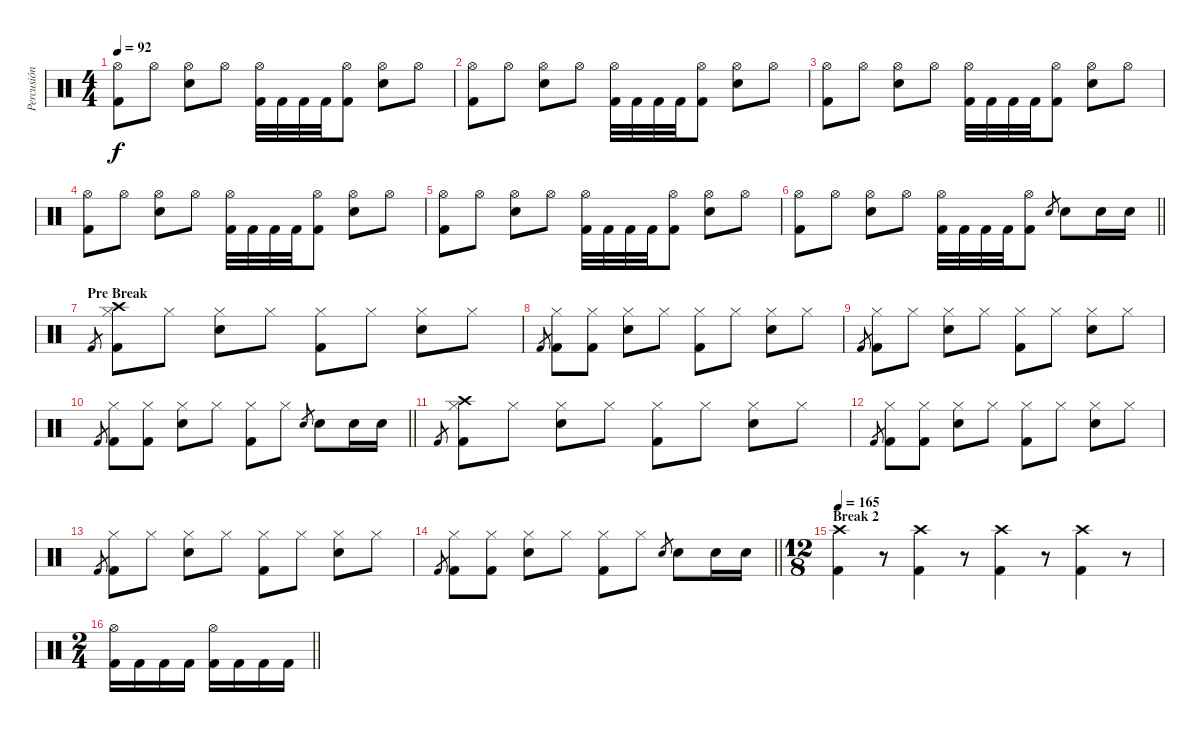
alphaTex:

\track ("Percusión" "Percusión") {instrument percussion}
\staff {score}
\articulation defaults
\ts (4 4)
\tempo 92
\clef neutral
\ks c
("Hi-Hat (open)" "Kick (hit) 2").8{dy f} "Hi-Hat (open)".8 ("Hi-Hat (open)" "Snare (hit) 2").8 "Hi-Hat (open)".8 ("Hi-Hat (open)" "Kick (hit) 2").32 "Kick (hit) 2".32 "Kick (hit) 2".32 "Kick (hit) 2".32 ("Hi-Hat (open)" "Kick (hit) 2").8 ("Hi-Hat (open)" "Snare (hit) 2").8 "Hi-Hat (open)".8 |
("Hi-Hat (open)" "Kick (hit) 2").8 "Hi-Hat (open)".8 ("Hi-Hat (open)" "Snare (hit) 2").8 "Hi-Hat (open)".8 ("Hi-Hat (open)" "Kick (hit) 2").32 "Kick (hit) 2".32 "Kick (hit) 2".32 "Kick (hit) 2".32 ("Hi-Hat (open)" "Kick (hit) 2").8 ("Hi-Hat (open)" "Snare (hit) 2").8 "Hi-Hat (open)".8 |
("Hi-Hat (open)" "Kick (hit) 2").8 "Hi-Hat (open)".8 ("Hi-Hat (open)" "Snare (hit) 2").8 "Hi-Hat (open)".8 ("Hi-Hat (open)" "Kick (hit) 2").32 "Kick (hit) 2".32 "Kick (hit) 2".32 "Kick (hit) 2".32 ("Hi-Hat (open)" "Kick (hit) 2").8 ("Hi-Hat (open)" "Snare (hit) 2").8 "Hi-Hat (open)".8 |
("Hi-Hat (open)" "Kick (hit) 2").8 "Hi-Hat (open)".8 ("Hi-Hat (open)" "Snare (hit) 2").8 "Hi-Hat (open)".8 ("Hi-Hat (open)" "Kick (hit) 2").32 "Kick (hit) 2".32 "Kick (hit) 2".32 "Kick (hit) 2".32 ("Hi-Hat (open)" "Kick (hit) 2").8 ("Hi-Hat (open)" "Snare (hit) 2").8 "Hi-Hat (open)".8 |
("Hi-Hat (open)" "Kick (hit) 2").8 "Hi-Hat (open)".8 ("Hi-Hat (open)" "Snare (hit) 2").8 "Hi-Hat (open)".8 ("Hi-Hat (open)" "Kick (hit) 2").32 "Kick (hit) 2".32 "Kick (hit) 2".32 "Kick (hit) 2".32 ("Hi-Hat (open)" "Kick (hit) 2").8 ("Hi-Hat (open)" "Snare (hit) 2").8 "Hi-Hat (open)".8 |
\barLineRight lightlight
("Hi-Hat (open)" "Kick (hit) 2").8 "Hi-Hat (open)".8 ("Hi-Hat (open)" "Snare (hit) 2").8 "Hi-Hat (open)".8 ("Hi-Hat (open)" "Kick (hit) 2").32 "Kick (hit) 2".32 "Kick (hit) 2".32 "Kick (hit) 2".32 ("Hi-Hat (open)" "Kick (hit) 2").8 "Snare (hit) 2".8{gr} "Snare (hit) 2".8 "Snare (hit) 2".16 "Snare (hit) 2".16 |
\section ("" "Pre Break")
"Kick (hit) 2".8{gr} ("Hi-Hat (closed)" "Crash high (hit)" "Kick (hit) 2").8 "Hi-Hat (closed)".8 ("Hi-Hat (closed)" "Snare (hit) 2").8 "Hi-Hat (closed)".8 ("Hi-Hat (closed)" "Kick (hit) 2").8 "Hi-Hat (closed)".8 ("Hi-Hat (closed)" "Snare (hit) 2").8 "Hi-Hat (closed)".8 |
"Kick (hit) 2".8{gr} ("Hi-Hat (closed)" "Kick (hit) 2").8 ("Hi-Hat (closed)" "Kick (hit) 2").8 ("Hi-Hat (closed)" "Snare (hit) 2").8 "Hi-Hat (closed)".8 ("Hi-Hat (closed)" "Kick (hit) 2").8 "Hi-Hat (closed)".8 ("Hi-Hat (closed)" "Snare (hit) 2").8 "Hi-Hat (closed)".8 |
"Kick (hit) 2".8{gr} ("Hi-Hat (closed)" "Kick (hit) 2").8 "Hi-Hat (closed)".8 ("Hi-Hat (closed)" "Snare (hit) 2").8 "Hi-Hat (closed)".8 ("Hi-Hat (closed)" "Kick (hit) 2").8 "Hi-Hat (closed)".8 ("Hi-Hat (closed)" "Snare (hit) 2").8 "Hi-Hat (closed)".8 |
\barLineRight lightlight "Kick (hit) 2".8{gr}
("Hi-Hat (closed)" "Kick (hit) 2").8 ("Hi-Hat (closed)" "Kick (hit) 2").8 ("Hi-Hat (closed)" "Snare (hit) 2").8 "Hi-Hat (closed)".8 ("Hi-Hat (closed)" "Kick (hit) 2").8 "Hi-Hat (closed)".8 "Snare (hit) 2".8{gr} "Snare (hit) 2".8 "Snare (hit) 2".16 "Snare (hit) 2".16 |
"Kick (hit) 2".8{gr} ("Hi-Hat (closed)" "Crash high (hit)" "Kick (hit) 2").8 "Hi-Hat (closed)".8 ("Hi-Hat (closed)" "Snare (hit) 2").8 "Hi-Hat (closed)".8 ("Hi-Hat (closed)" "Kick (hit) 2").8 "Hi-Hat (closed)".8 ("Hi-Hat (closed)" "Snare (hit) 2").8 "Hi-Hat (closed)".8 |
"Kick (hit) 2".8{gr} ("Hi-Hat (closed)" "Kick (hit) 2").8 ("Hi-Hat (closed)" "Kick (hit) 2").8 ("Hi-Hat (closed)" "Snare (hit) 2").8 "Hi-Hat (closed)".8 ("Hi-Hat (closed)" "Kick (hit) 2").8 "Hi-Hat (closed)".8 ("Hi-Hat (closed)" "Snare (hit) 2").8 "Hi-Hat (closed)".8 |
"Kick (hit) 2".8{gr} ("Hi-Hat (closed)" "Kick (hit) 2").8 "Hi-Hat (closed)".8 ("Hi-Hat (closed)" "Snare (hit) 2").8 "Hi-Hat (closed)".8 ("Hi-Hat (closed)" "Kick (hit) 2").8 "Hi-Hat (closed)".8 ("Hi-Hat (closed)" "Snare (hit) 2").8 "Hi-Hat (closed)".8 |
\barLineRight lightlight "Kick (hit) 2".8{gr}
("Hi-Hat (closed)" "Kick (hit) 2").8 ("Hi-Hat (closed)" "Kick (hit) 2").8 ("Hi-Hat (closed)" "Snare (hit) 2").8 "Hi-Hat (closed)".8 ("Hi-Hat (closed)" "Kick (hit) 2").8 "Hi-Hat (closed)".8 "Snare (hit) 2".8{gr} "Snare (hit) 2".8 "Snare (hit) 2".16 "Snare (hit) 2".16 |
\ts (12 8)
\section ("" "Break 2")
\tempo 165
("Crash high (hit)" "Kick (hit) 2").4 r.8 ("Crash high (hit)" "Kick (hit) 2").4 r.8 ("Crash high (hit)" "Kick (hit) 2").4 r.8 ("Crash high (hit)" "Kick (hit) 2").4 r.8 |
\ts (2 4)
\barLineRight lightlight
("Hi-Hat (open)" "Kick (hit) 2").16 "Kick (hit) 2".16 "Kick (hit) 2".16 "Kick (hit) 2".16 ("Hi-Hat (open)" "Kick (hit) 2").16 "Kick (hit) 2".16 "Kick (hit) 2".16 "Kick (hit) 2".16
